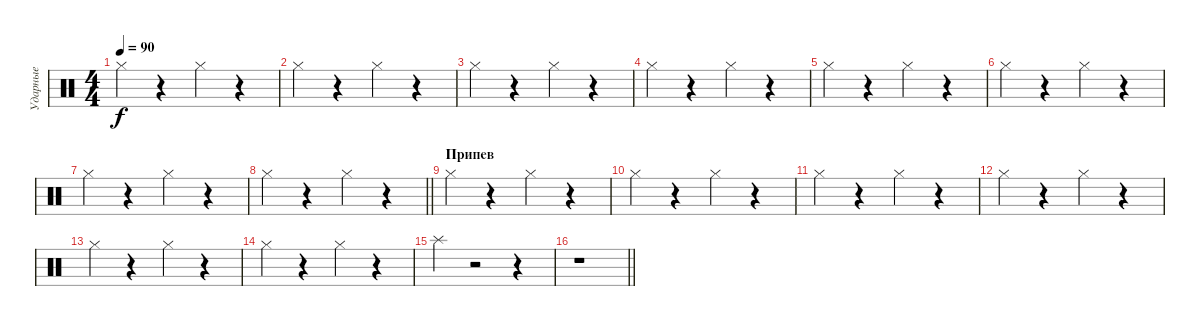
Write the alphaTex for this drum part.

\track ("Ударные" "Ударные") {instrument percussion}
\staff {score}
\articulation defaults
\ts (4 4)
\tempo 90
\clef neutral
\ks c "Hi-Hat (closed)".4{dy f}
r.4 "Hi-Hat (closed)".4 r.4 |
"Hi-Hat (closed)".4 r.4 "Hi-Hat (closed)".4 r.4 |
"Hi-Hat (closed)".4 r.4 "Hi-Hat (closed)".4 r.4 |
"Hi-Hat (closed)".4 r.4 "Hi-Hat (closed)".4 r.4 |
"Hi-Hat (closed)".4 r.4 "Hi-Hat (closed)".4 r.4 |
"Hi-Hat (closed)".4 r.4 "Hi-Hat (closed)".4 r.4 |
"Hi-Hat (closed)".4 r.4 "Hi-Hat (closed)".4 r.4 |
\barLineRight lightlight "Hi-Hat (closed)".4
r.4 "Hi-Hat (closed)".4 r.4 |
\section ("" "Припев")
"Hi-Hat (closed)".4 r.4 "Hi-Hat (closed)".4 r.4 |
"Hi-Hat (closed)".4 r.4 "Hi-Hat (closed)".4 r.4 |
"Hi-Hat (closed)".4 r.4 "Hi-Hat (closed)".4 r.4 |
"Hi-Hat (closed)".4 r.4 "Hi-Hat (closed)".4 r.4 |
"Hi-Hat (closed)".4 r.4 "Hi-Hat (closed)".4 r.4 |
"Hi-Hat (closed)".4 r.4 "Hi-Hat (closed)".4 r.4 |
"Splash (hit)".4 r.2 r.4 |
\barLineRight lightlight
r.1
